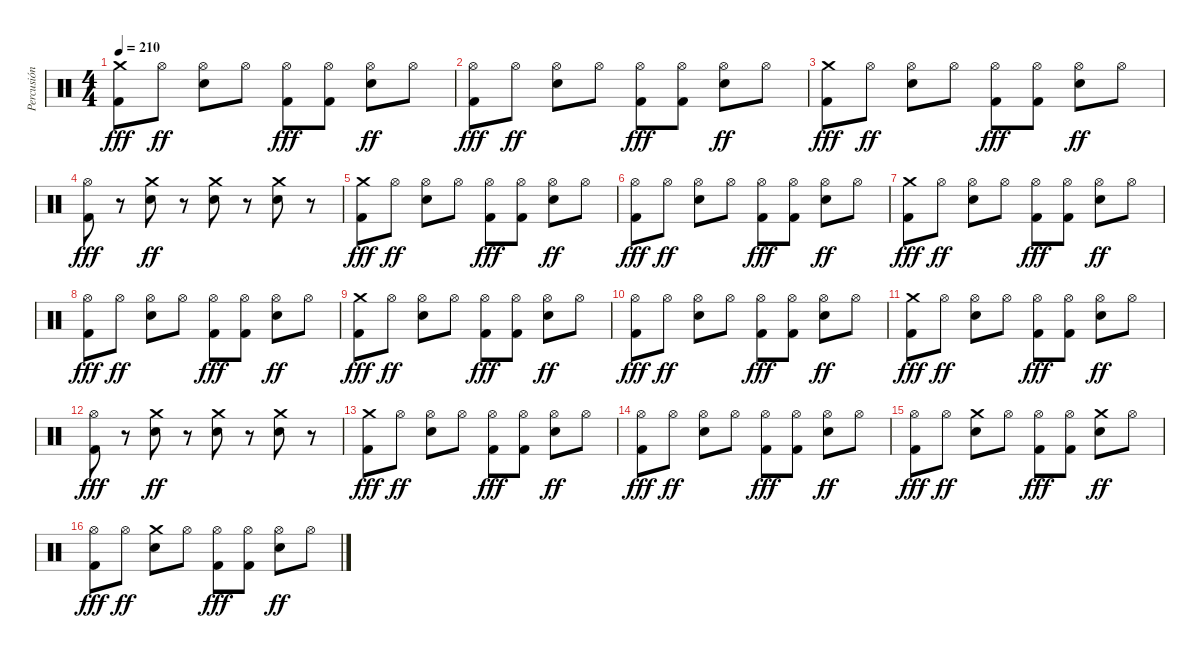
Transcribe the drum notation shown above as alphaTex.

\track ("Percusión" "Percusión") {instrument percussion}
\staff {score}
\articulation defaults
\ts (4 4)
\tempo 210
\clef neutral
\ks c
("Crash medium (hit)" "Kick (hit) 2").8{dy fff} "Hi-Hat (open)".8{dy ff} ("Hi-Hat (open)" "Electric Snare (hit)").8 "Hi-Hat (open)".8 ("Hi-Hat (open)" "Kick (hit) 2").8{dy fff} ("Hi-Hat (open)" "Kick (hit) 2").8 ("Hi-Hat (open)" "Electric Snare (hit)").8{dy ff} "Hi-Hat (open)".8 |
("Hi-Hat (open)" "Kick (hit) 2").8{dy fff} "Hi-Hat (open)".8{dy ff} ("Hi-Hat (open)" "Electric Snare (hit)").8 "Hi-Hat (open)".8 ("Hi-Hat (open)" "Kick (hit) 2").8{dy fff} ("Hi-Hat (open)" "Kick (hit) 2").8 ("Hi-Hat (open)" "Electric Snare (hit)").8{dy ff} "Hi-Hat (open)".8 |
("Crash medium (hit)" "Kick (hit) 2").8{dy fff} "Hi-Hat (open)".8{dy ff} ("Hi-Hat (open)" "Electric Snare (hit)").8 "Hi-Hat (open)".8 ("Hi-Hat (open)" "Kick (hit) 2").8{dy fff} ("Hi-Hat (open)" "Kick (hit) 2").8 ("Hi-Hat (open)" "Electric Snare (hit)").8{dy ff} "Hi-Hat (open)".8 |
("Hi-Hat (open)" "Kick (hit) 2").8{dy fff} r.8 ("Crash medium (hit)" "Electric Snare (hit)").8{dy ff} r.8 ("Crash medium (hit)" "Electric Snare (hit)").8 r.8 ("Crash medium (hit)" "Electric Snare (hit)").8 r.8 |
("Crash medium (hit)" "Kick (hit) 2").8{dy fff} "Hi-Hat (open)".8{dy ff} ("Hi-Hat (open)" "Electric Snare (hit)").8 "Hi-Hat (open)".8 ("Hi-Hat (open)" "Kick (hit) 2").8{dy fff} ("Hi-Hat (open)" "Kick (hit) 2").8 ("Hi-Hat (open)" "Electric Snare (hit)").8{dy ff} "Hi-Hat (open)".8 |
("Hi-Hat (open)" "Kick (hit) 2").8{dy fff} "Hi-Hat (open)".8{dy ff} ("Hi-Hat (open)" "Electric Snare (hit)").8 "Hi-Hat (open)".8 ("Hi-Hat (open)" "Kick (hit) 2").8{dy fff} ("Hi-Hat (open)" "Kick (hit) 2").8 ("Hi-Hat (open)" "Electric Snare (hit)").8{dy ff} "Hi-Hat (open)".8 |
("Crash medium (hit)" "Kick (hit) 2").8{dy fff} "Hi-Hat (open)".8{dy ff} ("Hi-Hat (open)" "Electric Snare (hit)").8 "Hi-Hat (open)".8 ("Hi-Hat (open)" "Kick (hit) 2").8{dy fff} ("Hi-Hat (open)" "Kick (hit) 2").8 ("Hi-Hat (open)" "Electric Snare (hit)").8{dy ff} "Hi-Hat (open)".8 |
("Hi-Hat (open)" "Kick (hit) 2").8{dy fff} "Hi-Hat (open)".8{dy ff} ("Hi-Hat (open)" "Electric Snare (hit)").8 "Hi-Hat (open)".8 ("Hi-Hat (open)" "Kick (hit) 2").8{dy fff} ("Hi-Hat (open)" "Kick (hit) 2").8 ("Hi-Hat (open)" "Electric Snare (hit)").8{dy ff} "Hi-Hat (open)".8 |
("Crash medium (hit)" "Kick (hit) 2").8{dy fff} "Hi-Hat (open)".8{dy ff} ("Hi-Hat (open)" "Electric Snare (hit)").8 "Hi-Hat (open)".8 ("Hi-Hat (open)" "Kick (hit) 2").8{dy fff} ("Hi-Hat (open)" "Kick (hit) 2").8 ("Hi-Hat (open)" "Electric Snare (hit)").8{dy ff} "Hi-Hat (open)".8 |
("Hi-Hat (open)" "Kick (hit) 2").8{dy fff} "Hi-Hat (open)".8{dy ff} ("Hi-Hat (open)" "Electric Snare (hit)").8 "Hi-Hat (open)".8 ("Hi-Hat (open)" "Kick (hit) 2").8{dy fff} ("Hi-Hat (open)" "Kick (hit) 2").8 ("Hi-Hat (open)" "Electric Snare (hit)").8{dy ff} "Hi-Hat (open)".8 |
("Crash medium (hit)" "Kick (hit) 2").8{dy fff} "Hi-Hat (open)".8{dy ff} ("Hi-Hat (open)" "Electric Snare (hit)").8 "Hi-Hat (open)".8 ("Hi-Hat (open)" "Kick (hit) 2").8{dy fff} ("Hi-Hat (open)" "Kick (hit) 2").8 ("Hi-Hat (open)" "Electric Snare (hit)").8{dy ff} "Hi-Hat (open)".8 |
("Hi-Hat (open)" "Kick (hit) 2").8{dy fff} r.8 ("Crash medium (hit)" "Electric Snare (hit)").8{dy ff} r.8 ("Crash medium (hit)" "Electric Snare (hit)").8 r.8 ("Crash medium (hit)" "Electric Snare (hit)").8 r.8 |
("Crash medium (hit)" "Kick (hit) 2").8{dy fff} "Hi-Hat (open)".8{dy ff} ("Hi-Hat (open)" "Electric Snare (hit)").8 "Hi-Hat (open)".8 ("Hi-Hat (open)" "Kick (hit) 2").8{dy fff} ("Hi-Hat (open)" "Kick (hit) 2").8 ("Hi-Hat (open)" "Electric Snare (hit)").8{dy ff} "Hi-Hat (open)".8 |
("Hi-Hat (open)" "Kick (hit) 2").8{dy fff} "Hi-Hat (open)".8{dy ff} ("Hi-Hat (open)" "Electric Snare (hit)").8 "Hi-Hat (open)".8 ("Hi-Hat (open)" "Kick (hit) 2").8{dy fff} ("Hi-Hat (open)" "Kick (hit) 2").8 ("Hi-Hat (open)" "Electric Snare (hit)").8{dy ff} "Hi-Hat (open)".8 |
("Hi-Hat (open)" "Kick (hit) 2").8{dy fff} "Hi-Hat (open)".8{dy ff} ("Crash medium (hit)" "Electric Snare (hit)").8 "Hi-Hat (open)".8 ("Hi-Hat (open)" "Kick (hit) 2").8{dy fff} ("Hi-Hat (open)" "Kick (hit) 2").8 ("Crash medium (hit)" "Electric Snare (hit)").8{dy ff} "Hi-Hat (open)".8 |
("Hi-Hat (open)" "Kick (hit) 2").8{dy fff} "Hi-Hat (open)".8{dy ff} ("Crash medium (hit)" "Electric Snare (hit)").8 "Hi-Hat (open)".8 ("Hi-Hat (open)" "Kick (hit) 2").8{dy fff} ("Hi-Hat (open)" "Kick (hit) 2").8 ("Hi-Hat (open)" "Electric Snare (hit)").8{dy ff} "Hi-Hat (open)".8
